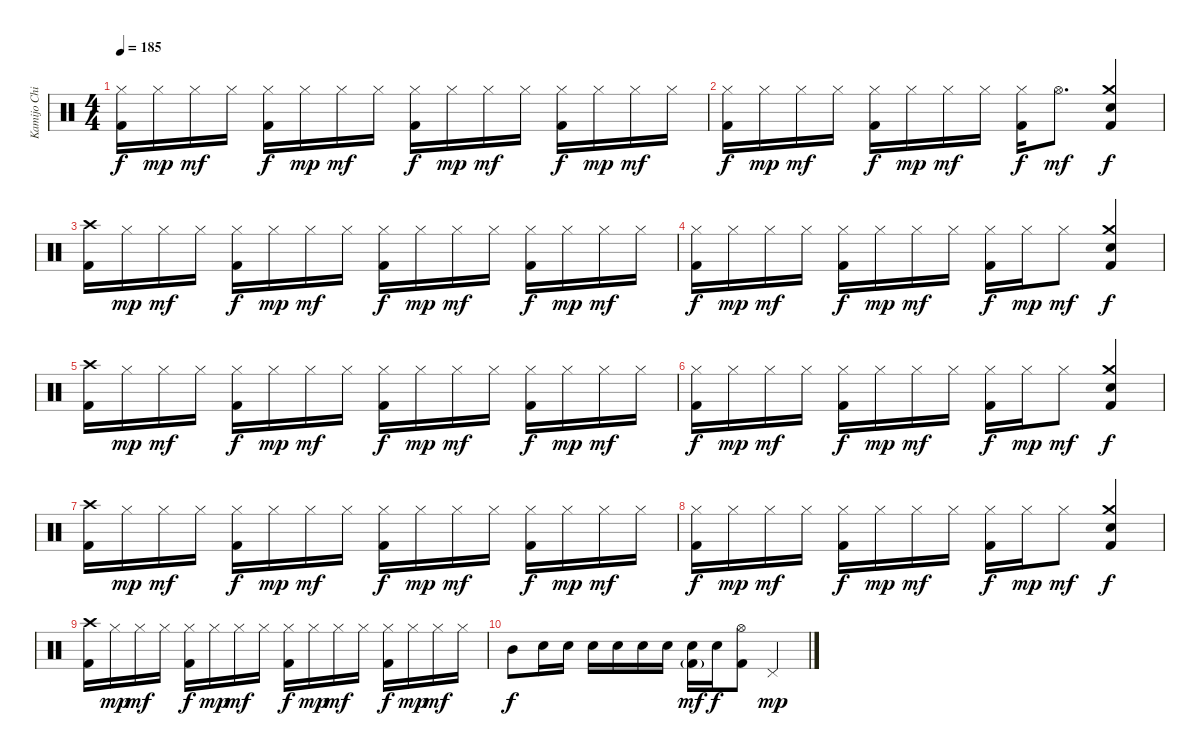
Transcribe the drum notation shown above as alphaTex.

\track ("Kamijo Chihiro" "Kamijo Chi") {instrument percussion}
\staff {score}
\articulation defaults
\ts (4 4)
\tempo 185
\clef neutral
\ks c
("Hi-Hat (closed)" "Kick (hit) 2").16{dy f} "Hi-Hat (closed)".16{dy mp} "Hi-Hat (closed)".16{dy mf} "Hi-Hat (closed)".16 ("Hi-Hat (closed)" "Kick (hit) 2").16{dy f} "Hi-Hat (closed)".16{dy mp} "Hi-Hat (closed)".16{dy mf} "Hi-Hat (closed)".16 ("Hi-Hat (closed)" "Kick (hit) 2").16{dy f} "Hi-Hat (closed)".16{dy mp} "Hi-Hat (closed)".16{dy mf} "Hi-Hat (closed)".16 ("Hi-Hat (closed)" "Kick (hit) 2").16{dy f} "Hi-Hat (closed)".16{dy mp} "Hi-Hat (closed)".16{dy mf} "Hi-Hat (closed)".16 |
("Hi-Hat (closed)" "Kick (hit) 2").16{dy f} "Hi-Hat (closed)".16{dy mp} "Hi-Hat (closed)".16{dy mf} "Hi-Hat (closed)".16 ("Hi-Hat (closed)" "Kick (hit) 2").16{dy f} "Hi-Hat (closed)".16{dy mp} "Hi-Hat (closed)".16{dy mf} "Hi-Hat (closed)".16 ("Hi-Hat (closed)" "Kick (hit) 2").16{dy f} "Hi-Hat (open)".8{d dy mf} ("Crash medium (hit)" "Snare (hit) 2" "Kick (hit) 2").4{dy f} |
("Crash high (hit)" "Kick (hit) 2").16 "Hi-Hat (closed)".16{dy mp} "Hi-Hat (closed)".16{dy mf} "Hi-Hat (closed)".16 ("Hi-Hat (closed)" "Kick (hit) 2").16{dy f} "Hi-Hat (closed)".16{dy mp} "Hi-Hat (closed)".16{dy mf} "Hi-Hat (closed)".16 ("Hi-Hat (closed)" "Kick (hit) 2").16{dy f} "Hi-Hat (closed)".16{dy mp} "Hi-Hat (closed)".16{dy mf} "Hi-Hat (closed)".16 ("Hi-Hat (closed)" "Kick (hit) 2").16{dy f} "Hi-Hat (closed)".16{dy mp} "Hi-Hat (closed)".16{dy mf} "Hi-Hat (closed)".16 |
("Hi-Hat (closed)" "Kick (hit) 2").16{dy f} "Hi-Hat (closed)".16{dy mp} "Hi-Hat (closed)".16{dy mf} "Hi-Hat (closed)".16 ("Hi-Hat (closed)" "Kick (hit) 2").16{dy f} "Hi-Hat (closed)".16{dy mp} "Hi-Hat (closed)".16{dy mf} "Hi-Hat (closed)".16 ("Hi-Hat (closed)" "Kick (hit) 2").16{dy f} "Hi-Hat (closed)".16{dy mp} "Hi-Hat (closed)".8{dy mf} ("Crash medium (hit)" "Snare (hit) 2" "Kick (hit) 2").4{dy f} |
("Crash high (hit)" "Kick (hit) 2").16 "Hi-Hat (closed)".16{dy mp} "Hi-Hat (closed)".16{dy mf} "Hi-Hat (closed)".16 ("Hi-Hat (closed)" "Kick (hit) 2").16{dy f} "Hi-Hat (closed)".16{dy mp} "Hi-Hat (closed)".16{dy mf} "Hi-Hat (closed)".16 ("Hi-Hat (closed)" "Kick (hit) 2").16{dy f} "Hi-Hat (closed)".16{dy mp} "Hi-Hat (closed)".16{dy mf} "Hi-Hat (closed)".16 ("Hi-Hat (closed)" "Kick (hit) 2").16{dy f} "Hi-Hat (closed)".16{dy mp} "Hi-Hat (closed)".16{dy mf} "Hi-Hat (closed)".16 |
("Hi-Hat (closed)" "Kick (hit) 2").16{dy f} "Hi-Hat (closed)".16{dy mp} "Hi-Hat (closed)".16{dy mf} "Hi-Hat (closed)".16 ("Hi-Hat (closed)" "Kick (hit) 2").16{dy f} "Hi-Hat (closed)".16{dy mp} "Hi-Hat (closed)".16{dy mf} "Hi-Hat (closed)".16 ("Hi-Hat (closed)" "Kick (hit) 2").16{dy f} "Hi-Hat (closed)".16{dy mp} "Hi-Hat (closed)".8{dy mf} ("Crash medium (hit)" "Snare (hit) 2" "Kick (hit) 2").4{dy f} |
("Crash high (hit)" "Kick (hit) 2").16 "Hi-Hat (closed)".16{dy mp} "Hi-Hat (closed)".16{dy mf} "Hi-Hat (closed)".16 ("Hi-Hat (closed)" "Kick (hit) 2").16{dy f} "Hi-Hat (closed)".16{dy mp} "Hi-Hat (closed)".16{dy mf} "Hi-Hat (closed)".16 ("Hi-Hat (closed)" "Kick (hit) 2").16{dy f} "Hi-Hat (closed)".16{dy mp} "Hi-Hat (closed)".16{dy mf} "Hi-Hat (closed)".16 ("Hi-Hat (closed)" "Kick (hit) 2").16{dy f} "Hi-Hat (closed)".16{dy mp} "Hi-Hat (closed)".16{dy mf} "Hi-Hat (closed)".16 |
("Hi-Hat (closed)" "Kick (hit) 2").16{dy f} "Hi-Hat (closed)".16{dy mp} "Hi-Hat (closed)".16{dy mf} "Hi-Hat (closed)".16 ("Hi-Hat (closed)" "Kick (hit) 2").16{dy f} "Hi-Hat (closed)".16{dy mp} "Hi-Hat (closed)".16{dy mf} "Hi-Hat (closed)".16 ("Hi-Hat (closed)" "Kick (hit) 2").16{dy f} "Hi-Hat (closed)".16{dy mp} "Hi-Hat (closed)".8{dy mf} ("Crash medium (hit)" "Snare (hit) 2" "Kick (hit) 2").4{dy f} |
("Crash high (hit)" "Kick (hit) 2").16 "Hi-Hat (closed)".16{dy mp} "Hi-Hat (closed)".16{dy mf} "Hi-Hat (closed)".16 ("Hi-Hat (closed)" "Kick (hit) 2").16{dy f} "Hi-Hat (closed)".16{dy mp} "Hi-Hat (closed)".16{dy mf} "Hi-Hat (closed)".16 ("Hi-Hat (closed)" "Kick (hit) 2").16{dy f} "Hi-Hat (closed)".16{dy mp} "Hi-Hat (closed)".16{dy mf} "Hi-Hat (closed)".16 ("Hi-Hat (closed)" "Kick (hit) 2").16{dy f} "Hi-Hat (closed)".16{dy mp} "Hi-Hat (closed)".16{dy mf} "Hi-Hat (closed)".16 |
"Mid Tom (hit)".8{dy f} "Snare (hit) 2".16 "Snare (hit) 2".16 "Snare (hit) 2".16 "Snare (hit) 2".16 "Snare (hit) 2".16 "Snare (hit) 2".16 ("Snare (hit) 2" "Kick (hit) 2"{g}).16{dy mf} "Snare (hit) 2".16{dy f} ("Hi-Hat (open)" "Kick (hit) 2").8 "Pedal Hi-Hat (hit)".4{dy mp}
